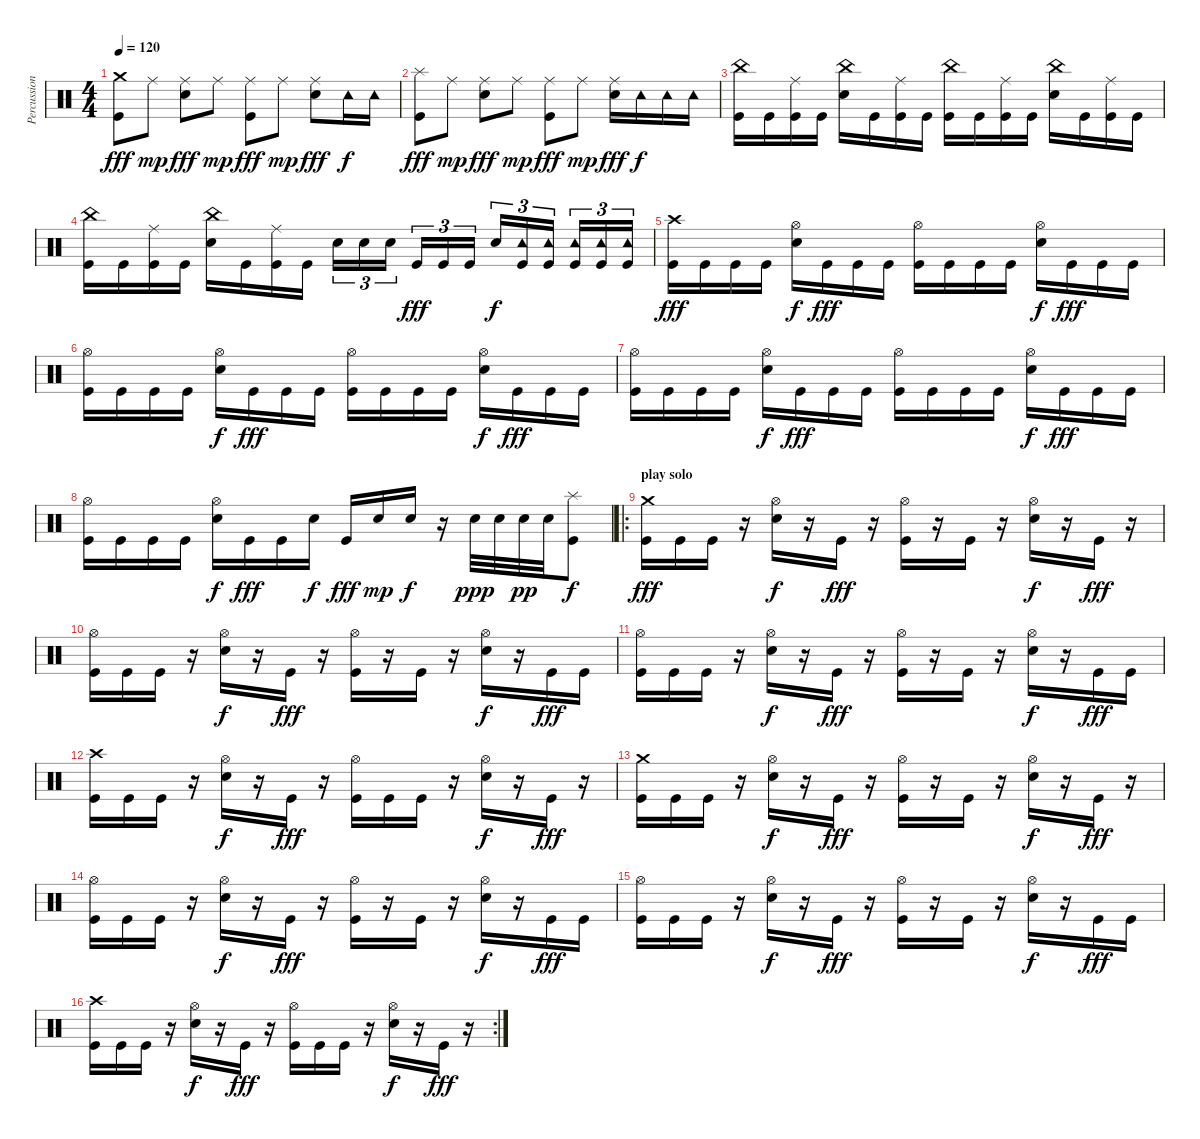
\track ("Percussion" "Percussion") {instrument percussion}
\staff {score}
\articulation defaults
\ts (4 4)
\tempo 120
\clef neutral
\ks c
("Crash medium (hit)" "Kick (hit)").8{dy fff} "Ride (middle)".8{dy mp} ("Ride (middle)" "Electric Snare (hit)").8{dy fff} "Ride (middle)".8{dy mp} ("Ride (middle)" "Kick (hit)").8{dy fff} "Ride (middle)".8{dy mp} ("Ride (middle)" "Electric Snare (hit)").8{dy fff} "Tambourine (hit)".16{dy f} "Tambourine (hit)".16 |
("Splash (hit)" "Kick (hit)").8{dy fff} "Ride (middle)".8{dy mp} ("Ride (middle)" "Electric Snare (hit)").8{dy fff} "Ride (middle)".8{dy mp} ("Ride (middle)" "Kick (hit)").8{dy fff} "Ride (middle)".8{dy mp} ("Ride (middle)" "Electric Snare (hit)").16{dy fff} "Tambourine (hit)".16{dy f} "Tambourine (hit)".16 "Tambourine (hit)".16 |
("China (hit)" "Kick (hit)").16 "Kick (hit)".16 ("Ride (middle)" "Kick (hit)").16 "Kick (hit)".16 ("China (hit)" "Electric Snare (hit)").16 "Kick (hit)".16 ("Ride (middle)" "Kick (hit)").16 "Kick (hit)".16 ("China (hit)" "Kick (hit)").16 "Kick (hit)".16 ("Ride (middle)" "Kick (hit)").16 "Kick (hit)".16 ("China (hit)" "Electric Snare (hit)").16 "Kick (hit)".16 ("Ride (middle)" "Kick (hit)").16 "Kick (hit)".16 |
("China (hit)" "Kick (hit)").16 "Kick (hit)".16 ("Ride (middle)" "Kick (hit)").16 "Kick (hit)".16 ("China (hit)" "Electric Snare (hit)").16 "Kick (hit)".16 ("Ride (middle)" "Kick (hit)").16 "Kick (hit)".16 "Electric Snare (hit)".16{tu (3 2)} "Electric Snare (hit)".16{tu (3 2)} "Electric Snare (hit)".16{tu (3 2)} "Kick (hit)".16{tu (3 2) dy fff} "Kick (hit)".16{tu (3 2)} "Kick (hit)".16{tu (3 2)} "Electric Snare (hit)".16{tu (3 2) dy f} ("Kick (hit)" "Tambourine (hit)").16{tu (3 2)} ("Kick (hit)" "Tambourine (hit)").16{tu (3 2)} ("Kick (hit)" "Tambourine (hit)").16{tu (3 2)} ("Kick (hit)" "Tambourine (hit)").16{tu (3 2)} ("Kick (hit)" "Tambourine (hit)").16{tu (3 2)} |
("Crash high (hit)" "Kick (hit)").16{dy fff} "Kick (hit)".16 "Kick (hit)".16 "Kick (hit)".16 ("Hi-Hat (open)" "Electric Snare (hit)").16{dy f} "Kick (hit)".16{dy fff} "Kick (hit)".16 "Kick (hit)".16 ("Hi-Hat (open)" "Kick (hit)").16 "Kick (hit)".16 "Kick (hit)".16 "Kick (hit)".16 ("Hi-Hat (open)" "Electric Snare (hit)").16{dy f} "Kick (hit)".16{dy fff} "Kick (hit)".16 "Kick (hit)".16 |
("Hi-Hat (open)" "Kick (hit)").16 "Kick (hit)".16 "Kick (hit)".16 "Kick (hit)".16 ("Hi-Hat (open)" "Electric Snare (hit)").16{dy f} "Kick (hit)".16{dy fff} "Kick (hit)".16 "Kick (hit)".16 ("Hi-Hat (open)" "Kick (hit)").16 "Kick (hit)".16 "Kick (hit)".16 "Kick (hit)".16 ("Hi-Hat (open)" "Electric Snare (hit)").16{dy f} "Kick (hit)".16{dy fff} "Kick (hit)".16 "Kick (hit)".16 |
("Hi-Hat (open)" "Kick (hit)").16 "Kick (hit)".16 "Kick (hit)".16 "Kick (hit)".16 ("Hi-Hat (open)" "Electric Snare (hit)").16{dy f} "Kick (hit)".16{dy fff} "Kick (hit)".16 "Kick (hit)".16 ("Hi-Hat (open)" "Kick (hit)").16 "Kick (hit)".16 "Kick (hit)".16 "Kick (hit)".16 ("Hi-Hat (open)" "Electric Snare (hit)").16{dy f} "Kick (hit)".16{dy fff} "Kick (hit)".16 "Kick (hit)".16 |
("Hi-Hat (open)" "Kick (hit)").16 "Kick (hit)".16 "Kick (hit)".16 "Kick (hit)".16 ("Hi-Hat (open)" "Electric Snare (hit)").16{dy f} "Kick (hit)".16{dy fff} "Kick (hit)".16 "Electric Snare (hit)".16{dy f} "Kick (hit)".16{dy fff} "Electric Snare (hit)".16{dy mp} "Electric Snare (hit)".16{dy f} r.16 "Electric Snare (hit)".32{dy ppp} "Electric Snare (hit)".32 "Electric Snare (hit)".32{dy pp} "Electric Snare (hit)".32 ("Splash (hit)" "Kick (hit)").8{dy f} |
\ro
\section ("" "play solo")
("Crash medium (hit)" "Kick (hit)").16{dy fff} "Kick (hit)".16 "Kick (hit)".16 r.16 ("Hi-Hat (open)" "Snare (hit) 2").16{dy f} r.16 "Kick (hit)".16{dy fff} r.16 ("Hi-Hat (open)" "Kick (hit)").16 r.16 "Kick (hit)".16 r.16 ("Hi-Hat (open)" "Snare (hit) 2").16{dy f} r.16 "Kick (hit)".16{dy fff} r.16 |
("Hi-Hat (open)" "Kick (hit)").16 "Kick (hit)".16 "Kick (hit)".16 r.16 ("Hi-Hat (open)" "Snare (hit) 2").16{dy f} r.16 "Kick (hit)".16{dy fff} r.16 ("Hi-Hat (open)" "Kick (hit)").16 r.16 "Kick (hit)".16 r.16 ("Hi-Hat (open)" "Snare (hit) 2").16{dy f} r.16 "Kick (hit)".16{dy fff} "Kick (hit)".16 |
("Hi-Hat (open)" "Kick (hit)").16 "Kick (hit)".16 "Kick (hit)".16 r.16 ("Hi-Hat (open)" "Snare (hit) 2").16{dy f} r.16 "Kick (hit)".16{dy fff} r.16 ("Hi-Hat (open)" "Kick (hit)").16 r.16 "Kick (hit)".16 r.16 ("Hi-Hat (open)" "Snare (hit) 2").16{dy f} r.16 "Kick (hit)".16{dy fff} "Kick (hit)".16 |
("Crash high (hit)" "Kick (hit)").16 "Kick (hit)".16 "Kick (hit)".16 r.16 ("Hi-Hat (open)" "Snare (hit) 2").16{dy f} r.16 "Kick (hit)".16{dy fff} r.16 ("Hi-Hat (open)" "Kick (hit)").16 "Kick (hit)".16 "Kick (hit)".16 r.16 ("Hi-Hat (open)" "Snare (hit) 2").16{dy f} r.16 "Kick (hit)".16{dy fff} r.16 |
("Crash medium (hit)" "Kick (hit)").16 "Kick (hit)".16 "Kick (hit)".16 r.16 ("Hi-Hat (open)" "Snare (hit) 2").16{dy f} r.16 "Kick (hit)".16{dy fff} r.16 ("Hi-Hat (open)" "Kick (hit)").16 r.16 "Kick (hit)".16 r.16 ("Hi-Hat (open)" "Snare (hit) 2").16{dy f} r.16 "Kick (hit)".16{dy fff} r.16 |
("Hi-Hat (open)" "Kick (hit)").16 "Kick (hit)".16 "Kick (hit)".16 r.16 ("Hi-Hat (open)" "Snare (hit) 2").16{dy f} r.16 "Kick (hit)".16{dy fff} r.16 ("Hi-Hat (open)" "Kick (hit)").16 r.16 "Kick (hit)".16 r.16 ("Hi-Hat (open)" "Snare (hit) 2").16{dy f} r.16 "Kick (hit)".16{dy fff} "Kick (hit)".16 |
("Hi-Hat (open)" "Kick (hit)").16 "Kick (hit)".16 "Kick (hit)".16 r.16 ("Hi-Hat (open)" "Snare (hit) 2").16{dy f} r.16 "Kick (hit)".16{dy fff} r.16 ("Hi-Hat (open)" "Kick (hit)").16 r.16 "Kick (hit)".16 r.16 ("Hi-Hat (open)" "Snare (hit) 2").16{dy f} r.16 "Kick (hit)".16{dy fff} "Kick (hit)".16 |
\rc 2
("Crash high (hit)" "Kick (hit)").16 "Kick (hit)".16 "Kick (hit)".16 r.16 ("Hi-Hat (open)" "Snare (hit) 2").16{dy f} r.16 "Kick (hit)".16{dy fff} r.16 ("Hi-Hat (open)" "Kick (hit)").16 "Kick (hit)".16 "Kick (hit)".16 r.16 ("Hi-Hat (open)" "Snare (hit) 2").16{dy f} r.16 "Kick (hit)".16{dy fff} r.16
